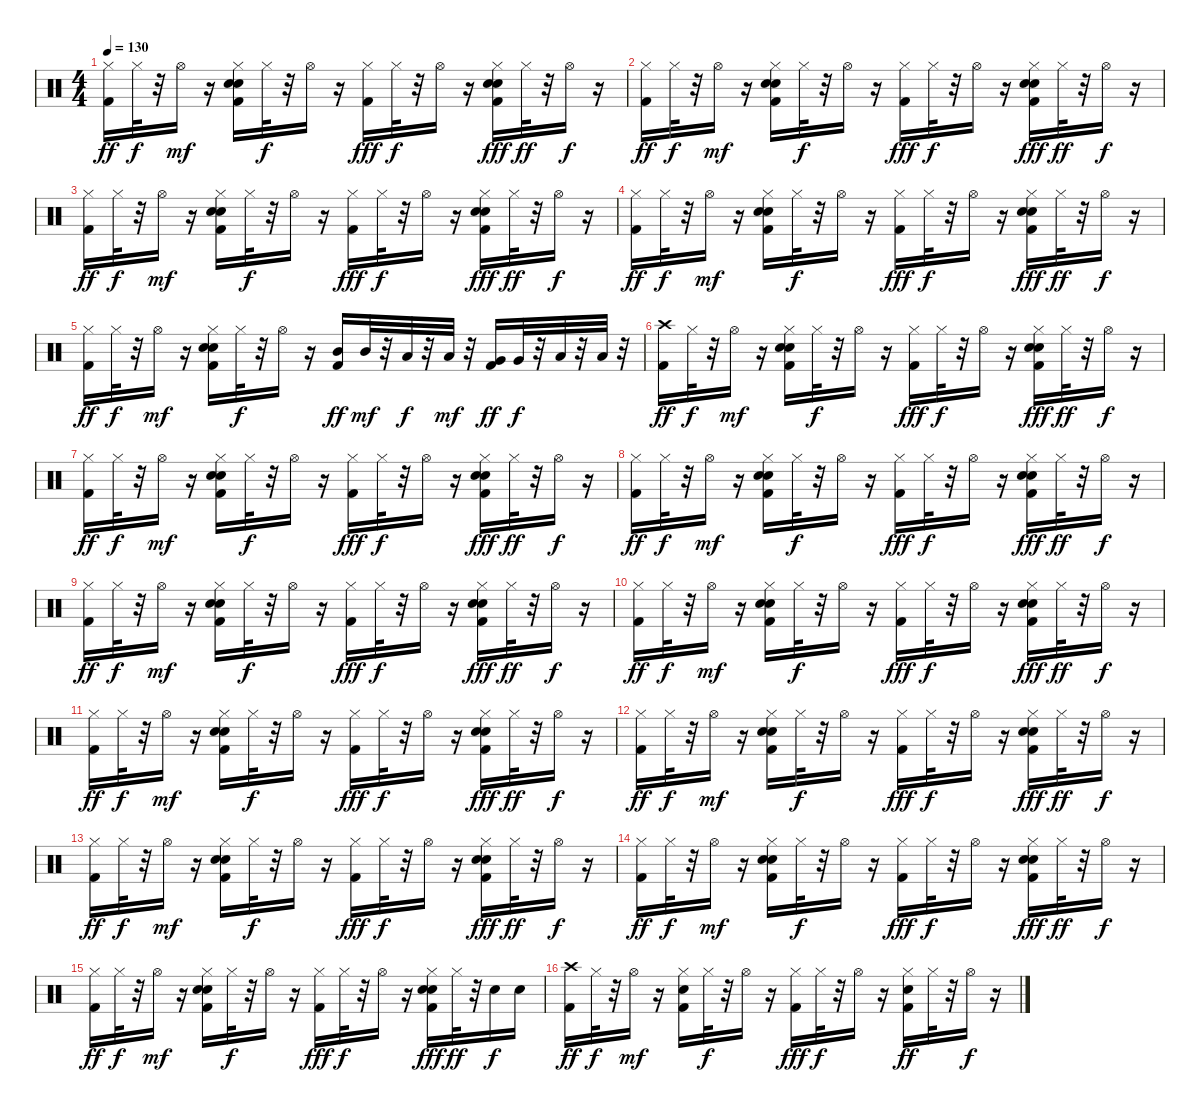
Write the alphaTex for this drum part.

\track "" {instrument percussion}
\staff {score}
\articulation defaults
\ts (4 4)
\tempo 130
\clef neutral
\ks c
("Kick (hit) 2" "Hi-Hat (closed)").16{dy ff} "Hi-Hat (closed)".32{dy f} r.32 "Hi-Hat (open)".16{dy mf} r.16 ("Kick (hit) 2" "Hand Clap (hit)" "Electric Snare (hit)" "Hi-Hat (closed)").16 "Hi-Hat (closed)".32{dy f} r.32 "Hi-Hat (open)".16 r.16 ("Kick (hit) 2" "Hi-Hat (closed)").16{dy fff} "Hi-Hat (closed)".32{dy f} r.32 "Hi-Hat (open)".16 r.16 ("Kick (hit) 2" "Hand Clap (hit)" "Electric Snare (hit)" "Hi-Hat (closed)").16{dy fff} "Hi-Hat (closed)".32{dy ff} r.32 "Hi-Hat (open)".16{dy f} r.16 |
("Kick (hit) 2" "Hi-Hat (closed)").16{dy ff} "Hi-Hat (closed)".32{dy f} r.32 "Hi-Hat (open)".16{dy mf} r.16 ("Kick (hit) 2" "Hand Clap (hit)" "Electric Snare (hit)" "Hi-Hat (closed)").16 "Hi-Hat (closed)".32{dy f} r.32 "Hi-Hat (open)".16 r.16 ("Kick (hit) 2" "Hi-Hat (closed)").16{dy fff} "Hi-Hat (closed)".32{dy f} r.32 "Hi-Hat (open)".16 r.16 ("Kick (hit) 2" "Hand Clap (hit)" "Electric Snare (hit)" "Hi-Hat (closed)").16{dy fff} "Hi-Hat (closed)".32{dy ff} r.32 "Hi-Hat (open)".16{dy f} r.16 |
("Kick (hit) 2" "Hi-Hat (closed)").16{dy ff} "Hi-Hat (closed)".32{dy f} r.32 "Hi-Hat (open)".16{dy mf} r.16 ("Kick (hit) 2" "Hand Clap (hit)" "Electric Snare (hit)" "Hi-Hat (closed)").16 "Hi-Hat (closed)".32{dy f} r.32 "Hi-Hat (open)".16 r.16 ("Kick (hit) 2" "Hi-Hat (closed)").16{dy fff} "Hi-Hat (closed)".32{dy f} r.32 "Hi-Hat (open)".16 r.16 ("Kick (hit) 2" "Hand Clap (hit)" "Electric Snare (hit)" "Hi-Hat (closed)").16{dy fff} "Hi-Hat (closed)".32{dy ff} r.32 "Hi-Hat (open)".16{dy f} r.16 |
("Kick (hit) 2" "Hi-Hat (closed)").16{dy ff} "Hi-Hat (closed)".32{dy f} r.32 "Hi-Hat (open)".16{dy mf} r.16 ("Kick (hit) 2" "Hand Clap (hit)" "Electric Snare (hit)" "Hi-Hat (closed)").16 "Hi-Hat (closed)".32{dy f} r.32 "Hi-Hat (open)".16 r.16 ("Kick (hit) 2" "Hi-Hat (closed)").16{dy fff} "Hi-Hat (closed)".32{dy f} r.32 "Hi-Hat (open)".16 r.16 ("Kick (hit) 2" "Hand Clap (hit)" "Electric Snare (hit)" "Hi-Hat (closed)").16{dy fff} "Hi-Hat (closed)".32{dy ff} r.32 "Hi-Hat (open)".16{dy f} r.16 |
("Kick (hit) 2" "Hi-Hat (closed)").16{dy ff} "Hi-Hat (closed)".32{dy f} r.32 "Hi-Hat (open)".16{dy mf} r.16 ("Kick (hit) 2" "Hand Clap (hit)" "Electric Snare (hit)" "Hi-Hat (closed)").16 "Hi-Hat (closed)".32{dy f} r.32 "Hi-Hat (open)".16 r.16 ("Kick (hit) 2" "Mid Tom (hit)").16{dy ff} "Mid Tom (hit)".32{dy mf} r.32 "Low Tom (hit)".32{dy f} r.32 "Low Tom (hit)".32{dy mf} r.32 ("Kick (hit) 2" "Very Low Tom (hit)").16{dy ff} "Very Low Tom (hit)".32{dy f} r.32 "Low Floor Tom (hit)".32 r.32 "Low Floor Tom (hit)".32 r.32 |
("Kick (hit) 2" "Crash high (hit)").16{dy ff} "Hi-Hat (closed)".32{dy f} r.32 "Hi-Hat (open)".16{dy mf} r.16 ("Kick (hit) 2" "Hand Clap (hit)" "Electric Snare (hit)" "Hi-Hat (closed)").16 "Hi-Hat (closed)".32{dy f} r.32 "Hi-Hat (open)".16 r.16 ("Kick (hit) 2" "Hi-Hat (closed)").16{dy fff} "Hi-Hat (closed)".32{dy f} r.32 "Hi-Hat (open)".16 r.16 ("Kick (hit) 2" "Hand Clap (hit)" "Electric Snare (hit)" "Hi-Hat (closed)").16{dy fff} "Hi-Hat (closed)".32{dy ff} r.32 "Hi-Hat (open)".16{dy f} r.16 |
("Kick (hit) 2" "Hi-Hat (closed)").16{dy ff} "Hi-Hat (closed)".32{dy f} r.32 "Hi-Hat (open)".16{dy mf} r.16 ("Kick (hit) 2" "Hand Clap (hit)" "Electric Snare (hit)" "Hi-Hat (closed)").16 "Hi-Hat (closed)".32{dy f} r.32 "Hi-Hat (open)".16 r.16 ("Kick (hit) 2" "Hi-Hat (closed)").16{dy fff} "Hi-Hat (closed)".32{dy f} r.32 "Hi-Hat (open)".16 r.16 ("Kick (hit) 2" "Hand Clap (hit)" "Electric Snare (hit)" "Hi-Hat (closed)").16{dy fff} "Hi-Hat (closed)".32{dy ff} r.32 "Hi-Hat (open)".16{dy f} r.16 |
("Kick (hit) 2" "Hi-Hat (closed)").16{dy ff} "Hi-Hat (closed)".32{dy f} r.32 "Hi-Hat (open)".16{dy mf} r.16 ("Kick (hit) 2" "Hand Clap (hit)" "Electric Snare (hit)" "Hi-Hat (closed)").16 "Hi-Hat (closed)".32{dy f} r.32 "Hi-Hat (open)".16 r.16 ("Kick (hit) 2" "Hi-Hat (closed)").16{dy fff} "Hi-Hat (closed)".32{dy f} r.32 "Hi-Hat (open)".16 r.16 ("Kick (hit) 2" "Hand Clap (hit)" "Electric Snare (hit)" "Hi-Hat (closed)").16{dy fff} "Hi-Hat (closed)".32{dy ff} r.32 "Hi-Hat (open)".16{dy f} r.16 |
("Kick (hit) 2" "Hi-Hat (closed)").16{dy ff} "Hi-Hat (closed)".32{dy f} r.32 "Hi-Hat (open)".16{dy mf} r.16 ("Kick (hit) 2" "Hand Clap (hit)" "Electric Snare (hit)" "Hi-Hat (closed)").16 "Hi-Hat (closed)".32{dy f} r.32 "Hi-Hat (open)".16 r.16 ("Kick (hit) 2" "Hi-Hat (closed)").16{dy fff} "Hi-Hat (closed)".32{dy f} r.32 "Hi-Hat (open)".16 r.16 ("Kick (hit) 2" "Hand Clap (hit)" "Electric Snare (hit)" "Hi-Hat (closed)").16{dy fff} "Hi-Hat (closed)".32{dy ff} r.32 "Hi-Hat (open)".16{dy f} r.16 |
("Kick (hit) 2" "Hi-Hat (closed)").16{dy ff} "Hi-Hat (closed)".32{dy f} r.32 "Hi-Hat (open)".16{dy mf} r.16 ("Kick (hit) 2" "Hand Clap (hit)" "Electric Snare (hit)" "Hi-Hat (closed)").16 "Hi-Hat (closed)".32{dy f} r.32 "Hi-Hat (open)".16 r.16 ("Kick (hit) 2" "Hi-Hat (closed)").16{dy fff} "Hi-Hat (closed)".32{dy f} r.32 "Hi-Hat (open)".16 r.16 ("Kick (hit) 2" "Hand Clap (hit)" "Electric Snare (hit)" "Hi-Hat (closed)").16{dy fff} "Hi-Hat (closed)".32{dy ff} r.32 "Hi-Hat (open)".16{dy f} r.16 |
("Kick (hit) 2" "Hi-Hat (closed)").16{dy ff} "Hi-Hat (closed)".32{dy f} r.32 "Hi-Hat (open)".16{dy mf} r.16 ("Kick (hit) 2" "Hand Clap (hit)" "Electric Snare (hit)" "Hi-Hat (closed)").16 "Hi-Hat (closed)".32{dy f} r.32 "Hi-Hat (open)".16 r.16 ("Kick (hit) 2" "Hi-Hat (closed)").16{dy fff} "Hi-Hat (closed)".32{dy f} r.32 "Hi-Hat (open)".16 r.16 ("Kick (hit) 2" "Hand Clap (hit)" "Electric Snare (hit)" "Hi-Hat (closed)").16{dy fff} "Hi-Hat (closed)".32{dy ff} r.32 "Hi-Hat (open)".16{dy f} r.16 |
("Kick (hit) 2" "Hi-Hat (closed)").16{dy ff} "Hi-Hat (closed)".32{dy f} r.32 "Hi-Hat (open)".16{dy mf} r.16 ("Kick (hit) 2" "Hand Clap (hit)" "Electric Snare (hit)" "Hi-Hat (closed)").16 "Hi-Hat (closed)".32{dy f} r.32 "Hi-Hat (open)".16 r.16 ("Kick (hit) 2" "Hi-Hat (closed)").16{dy fff} "Hi-Hat (closed)".32{dy f} r.32 "Hi-Hat (open)".16 r.16 ("Kick (hit) 2" "Hand Clap (hit)" "Electric Snare (hit)" "Hi-Hat (closed)").16{dy fff} "Hi-Hat (closed)".32{dy ff} r.32 "Hi-Hat (open)".16{dy f} r.16 |
("Kick (hit) 2" "Hi-Hat (closed)").16{dy ff} "Hi-Hat (closed)".32{dy f} r.32 "Hi-Hat (open)".16{dy mf} r.16 ("Kick (hit) 2" "Hand Clap (hit)" "Electric Snare (hit)" "Hi-Hat (closed)").16 "Hi-Hat (closed)".32{dy f} r.32 "Hi-Hat (open)".16 r.16 ("Kick (hit) 2" "Hi-Hat (closed)").16{dy fff} "Hi-Hat (closed)".32{dy f} r.32 "Hi-Hat (open)".16 r.16 ("Kick (hit) 2" "Hand Clap (hit)" "Electric Snare (hit)" "Hi-Hat (closed)").16{dy fff} "Hi-Hat (closed)".32{dy ff} r.32 "Hi-Hat (open)".16{dy f} r.16 |
("Kick (hit) 2" "Hi-Hat (closed)").16{dy ff} "Hi-Hat (closed)".32{dy f} r.32 "Hi-Hat (open)".16{dy mf} r.16 ("Kick (hit) 2" "Hand Clap (hit)" "Electric Snare (hit)" "Hi-Hat (closed)").16 "Hi-Hat (closed)".32{dy f} r.32 "Hi-Hat (open)".16 r.16 ("Kick (hit) 2" "Hi-Hat (closed)").16{dy fff} "Hi-Hat (closed)".32{dy f} r.32 "Hi-Hat (open)".16 r.16 ("Kick (hit) 2" "Hand Clap (hit)" "Electric Snare (hit)" "Hi-Hat (closed)").16{dy fff} "Hi-Hat (closed)".32{dy ff} r.32 "Hi-Hat (open)".16{dy f} r.16 |
("Kick (hit) 2" "Hi-Hat (closed)").16{dy ff} "Hi-Hat (closed)".32{dy f} r.32 "Hi-Hat (open)".16{dy mf} r.16 ("Kick (hit) 2" "Hand Clap (hit)" "Electric Snare (hit)" "Hi-Hat (closed)").16 "Hi-Hat (closed)".32{dy f} r.32 "Hi-Hat (open)".16 r.16 ("Kick (hit) 2" "Hi-Hat (closed)").16{dy fff} "Hi-Hat (closed)".32{dy f} r.32 "Hi-Hat (open)".16 r.16 ("Kick (hit) 2" "Hand Clap (hit)" "Electric Snare (hit)" "Hi-Hat (closed)").16{dy fff} "Hi-Hat (closed)".32{dy ff} r.32 "Electric Snare (hit)".16{dy f} "Electric Snare (hit)".16 |
("Kick (hit) 2" "Crash high (hit)").16{dy ff} "Hi-Hat (closed)".32{dy f} r.32 "Hi-Hat (open)".16{dy mf} r.16 ("Kick (hit) 2" "Electric Snare (hit)" "Hi-Hat (closed)").16 "Hi-Hat (closed)".32{dy f} r.32 "Hi-Hat (open)".16 r.16 ("Kick (hit) 2" "Hi-Hat (closed)").16{dy fff} "Hi-Hat (closed)".32{dy f} r.32 "Hi-Hat (open)".16 r.16 ("Kick (hit) 2" "Electric Snare (hit)" "Hi-Hat (closed)").16{dy ff} "Hi-Hat (closed)".32 r.32 "Hi-Hat (open)".16{dy f} r.16
